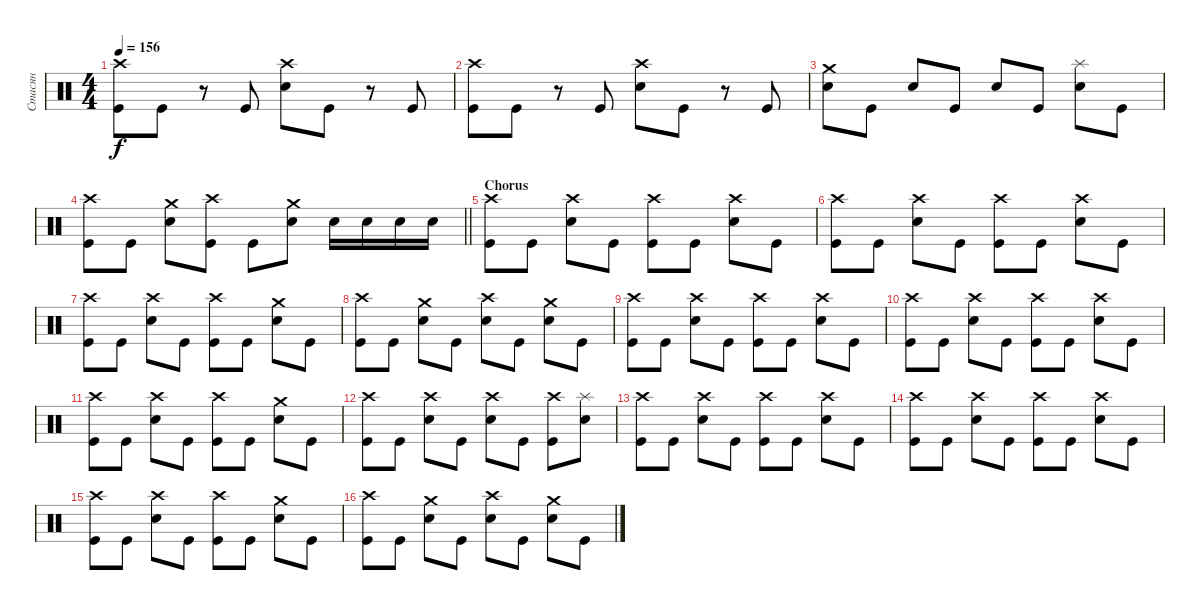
\track ("Стасян" "Стасян") {instrument percussion}
\staff
\articulation defaults
\ts (4 4)
\tempo 156
\clef neutral
\ks c
("Crash high (hit)" "Kick (hit)").8{dy f} "Kick (hit)".8 r.8 "Kick (hit)".8 ("Crash high (hit)" "Snare (hit) 2").8 "Kick (hit)".8 r.8 "Kick (hit)".8 |
("Crash high (hit)" "Kick (hit)").8 "Kick (hit)".8 r.8 "Kick (hit)".8 ("Crash high (hit)" "Snare (hit) 2").8 "Kick (hit)".8 r.8 "Kick (hit)".8 |
("Snare (hit) 2" "Crash medium (hit)").8 "Kick (hit)".8 "Snare (hit) 2".8 "Kick (hit)".8 "Snare (hit) 2".8 "Kick (hit)".8 ("Snare (hit) 2" "Splash (hit)").8 "Kick (hit)".8 |
\barLineRight lightlight
("Crash high (hit)" "Kick (hit)").8 "Kick (hit)".8 ("Snare (hit) 2" "Crash medium (hit)").8 ("Kick (hit)" "Crash high (hit)").8 "Kick (hit)".8 ("Snare (hit) 2" "Crash medium (hit)").8 "Snare (hit) 2".16 "Snare (hit) 2".16 "Snare (hit) 2".16 "Snare (hit) 2".16 |
\section ("" "Chorus")
("Crash high (hit)" "Kick (hit)").8 "Kick (hit)".8 ("Crash high (hit)" "Snare (hit) 2").8 "Kick (hit)".8 ("Crash high (hit)" "Kick (hit)").8 "Kick (hit)".8 ("Crash high (hit)" "Snare (hit) 2").8 "Kick (hit)".8 |
("Crash high (hit)" "Kick (hit)").8 "Kick (hit)".8 ("Crash high (hit)" "Snare (hit) 2").8 "Kick (hit)".8 ("Crash high (hit)" "Kick (hit)").8 "Kick (hit)".8 ("Crash high (hit)" "Snare (hit) 2").8 "Kick (hit)".8 |
("Crash high (hit)" "Kick (hit)").8 "Kick (hit)".8 ("Crash high (hit)" "Snare (hit) 2").8 "Kick (hit)".8 ("Crash high (hit)" "Kick (hit)").8 "Kick (hit)".8 ("Snare (hit) 2" "Crash medium (hit)").8 "Kick (hit)".8 |
("Crash high (hit)" "Kick (hit)").8 "Kick (hit)".8 ("Snare (hit) 2" "Crash medium (hit)").8 "Kick (hit)".8 ("Crash high (hit)" "Snare (hit) 2").8 "Kick (hit)".8 ("Snare (hit) 2" "Crash medium (hit)").8 "Kick (hit)".8 |
("Crash high (hit)" "Kick (hit)").8 "Kick (hit)".8 ("Crash high (hit)" "Snare (hit) 2").8 "Kick (hit)".8 ("Crash high (hit)" "Kick (hit)").8 "Kick (hit)".8 ("Crash high (hit)" "Snare (hit) 2").8 "Kick (hit)".8 |
("Crash high (hit)" "Kick (hit)").8 "Kick (hit)".8 ("Crash high (hit)" "Snare (hit) 2").8 "Kick (hit)".8 ("Crash high (hit)" "Kick (hit)").8 "Kick (hit)".8 ("Crash high (hit)" "Snare (hit) 2").8 "Kick (hit)".8 |
("Crash high (hit)" "Kick (hit)").8 "Kick (hit)".8 ("Crash high (hit)" "Snare (hit) 2").8 "Kick (hit)".8 ("Crash high (hit)" "Kick (hit)").8 "Kick (hit)".8 ("Snare (hit) 2" "Crash medium (hit)").8 "Kick (hit)".8 |
("Crash high (hit)" "Kick (hit)").8 "Kick (hit)".8 ("Crash high (hit)" "Snare (hit) 2").8 "Kick (hit)".8 ("Crash high (hit)" "Snare (hit) 2").8 "Kick (hit)".8 ("Crash high (hit)" "Kick (hit)").8 ("Snare (hit) 2" "Splash (hit)").8 |
("Crash high (hit)" "Kick (hit)").8 "Kick (hit)".8 ("Crash high (hit)" "Snare (hit) 2").8 "Kick (hit)".8 ("Crash high (hit)" "Kick (hit)").8 "Kick (hit)".8 ("Crash high (hit)" "Snare (hit) 2").8 "Kick (hit)".8 |
("Crash high (hit)" "Kick (hit)").8 "Kick (hit)".8 ("Crash high (hit)" "Snare (hit) 2").8 "Kick (hit)".8 ("Crash high (hit)" "Kick (hit)").8 "Kick (hit)".8 ("Crash high (hit)" "Snare (hit) 2").8 "Kick (hit)".8 |
("Crash high (hit)" "Kick (hit)").8 "Kick (hit)".8 ("Crash high (hit)" "Snare (hit) 2").8 "Kick (hit)".8 ("Crash high (hit)" "Kick (hit)").8 "Kick (hit)".8 ("Snare (hit) 2" "Crash medium (hit)").8 "Kick (hit)".8 |
("Crash high (hit)" "Kick (hit)").8 "Kick (hit)".8 ("Snare (hit) 2" "Crash medium (hit)").8 "Kick (hit)".8 ("Crash high (hit)" "Snare (hit) 2").8 "Kick (hit)".8 ("Snare (hit) 2" "Crash medium (hit)").8 "Kick (hit)".8
